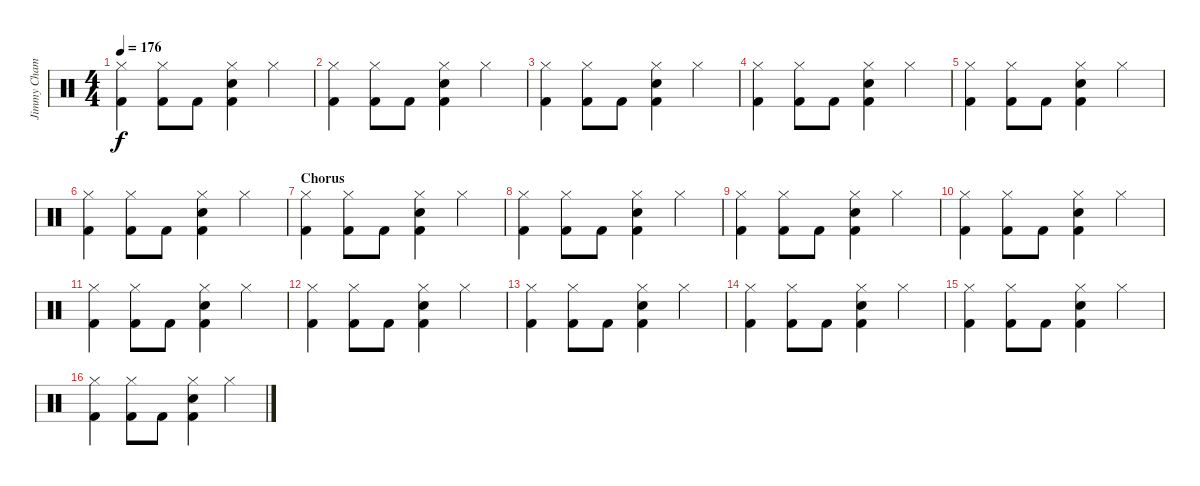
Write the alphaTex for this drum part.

\track ("Jimmy Chamberlin" "Jimmy Cham") {instrument percussion}
\staff {score}
\articulation defaults
\ts (4 4)
\tempo 176
\clef neutral
\ks c
("Hi-Hat (closed)" "Kick (hit) 2").4{dy f} ("Hi-Hat (closed)" "Kick (hit) 2").8 "Kick (hit) 2".8 ("Hi-Hat (closed)" "Snare (hit) 2" "Kick (hit) 2").4 "Hi-Hat (closed)".4 |
("Hi-Hat (closed)" "Kick (hit) 2").4 ("Hi-Hat (closed)" "Kick (hit) 2").8 "Kick (hit) 2".8 ("Hi-Hat (closed)" "Snare (hit) 2" "Kick (hit) 2").4 "Hi-Hat (closed)".4 |
("Hi-Hat (closed)" "Kick (hit) 2").4 ("Hi-Hat (closed)" "Kick (hit) 2").8 "Kick (hit) 2".8 ("Hi-Hat (closed)" "Snare (hit) 2" "Kick (hit) 2").4 "Hi-Hat (closed)".4 |
("Hi-Hat (closed)" "Kick (hit) 2").4 ("Hi-Hat (closed)" "Kick (hit) 2").8 "Kick (hit) 2".8 ("Hi-Hat (closed)" "Snare (hit) 2" "Kick (hit) 2").4 "Hi-Hat (closed)".4 |
("Hi-Hat (closed)" "Kick (hit) 2").4 ("Hi-Hat (closed)" "Kick (hit) 2").8 "Kick (hit) 2".8 ("Hi-Hat (closed)" "Snare (hit) 2" "Kick (hit) 2").4 "Hi-Hat (closed)".4 |
("Hi-Hat (closed)" "Kick (hit) 2").4 ("Hi-Hat (closed)" "Kick (hit) 2").8 "Kick (hit) 2".8 ("Hi-Hat (closed)" "Snare (hit) 2" "Kick (hit) 2").4 "Hi-Hat (closed)".4 |
\section ("" "Chorus")
("Hi-Hat (closed)" "Kick (hit) 2").4 ("Hi-Hat (closed)" "Kick (hit) 2").8 "Kick (hit) 2".8 ("Hi-Hat (closed)" "Snare (hit) 2" "Kick (hit) 2").4 "Hi-Hat (closed)".4 |
("Hi-Hat (closed)" "Kick (hit) 2").4 ("Hi-Hat (closed)" "Kick (hit) 2").8 "Kick (hit) 2".8 ("Hi-Hat (closed)" "Snare (hit) 2" "Kick (hit) 2").4 "Hi-Hat (closed)".4 |
("Hi-Hat (closed)" "Kick (hit) 2").4 ("Hi-Hat (closed)" "Kick (hit) 2").8 "Kick (hit) 2".8 ("Hi-Hat (closed)" "Snare (hit) 2" "Kick (hit) 2").4 "Hi-Hat (closed)".4 |
("Hi-Hat (closed)" "Kick (hit) 2").4 ("Hi-Hat (closed)" "Kick (hit) 2").8 "Kick (hit) 2".8 ("Hi-Hat (closed)" "Snare (hit) 2" "Kick (hit) 2").4 "Hi-Hat (closed)".4 |
("Hi-Hat (closed)" "Kick (hit) 2").4 ("Hi-Hat (closed)" "Kick (hit) 2").8 "Kick (hit) 2".8 ("Hi-Hat (closed)" "Snare (hit) 2" "Kick (hit) 2").4 "Hi-Hat (closed)".4 |
("Hi-Hat (closed)" "Kick (hit) 2").4 ("Hi-Hat (closed)" "Kick (hit) 2").8 "Kick (hit) 2".8 ("Hi-Hat (closed)" "Snare (hit) 2" "Kick (hit) 2").4 "Hi-Hat (closed)".4 |
("Hi-Hat (closed)" "Kick (hit) 2").4 ("Hi-Hat (closed)" "Kick (hit) 2").8 "Kick (hit) 2".8 ("Hi-Hat (closed)" "Snare (hit) 2" "Kick (hit) 2").4 "Hi-Hat (closed)".4 |
("Hi-Hat (closed)" "Kick (hit) 2").4 ("Hi-Hat (closed)" "Kick (hit) 2").8 "Kick (hit) 2".8 ("Hi-Hat (closed)" "Snare (hit) 2" "Kick (hit) 2").4 "Hi-Hat (closed)".4 |
("Hi-Hat (closed)" "Kick (hit) 2").4 ("Hi-Hat (closed)" "Kick (hit) 2").8 "Kick (hit) 2".8 ("Hi-Hat (closed)" "Snare (hit) 2" "Kick (hit) 2").4 "Hi-Hat (closed)".4 |
("Hi-Hat (closed)" "Kick (hit) 2").4 ("Hi-Hat (closed)" "Kick (hit) 2").8 "Kick (hit) 2".8 ("Hi-Hat (closed)" "Snare (hit) 2" "Kick (hit) 2").4 "Hi-Hat (closed)".4
